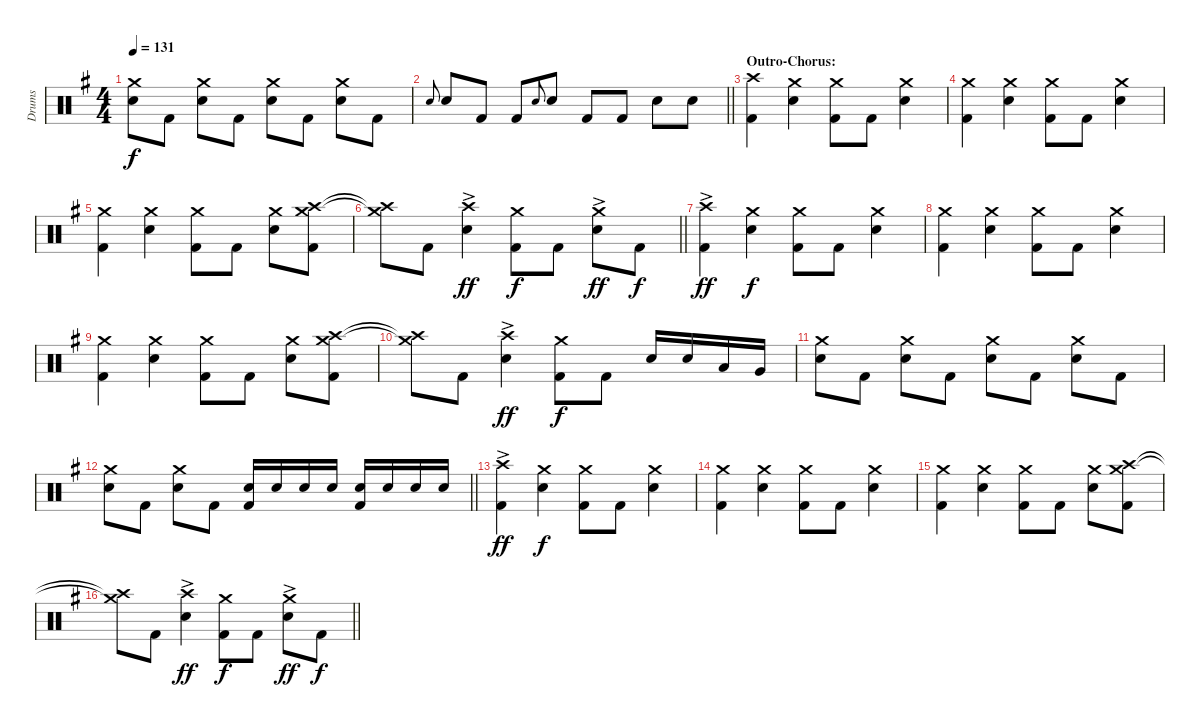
\track ("Drums" "Drums") {instrument percussion}
\staff {score}
\articulation defaults
\ts (4 4)
\tempo 131
\clef neutral
\ks g
("Crash medium (hit)" "Electric Snare (hit)").8{dy f} "Kick (hit) 2".8 ("Crash medium (hit)" "Electric Snare (hit)").8 "Kick (hit) 2".8 ("Crash medium (hit)" "Electric Snare (hit)").8 "Kick (hit) 2".8 ("Crash medium (hit)" "Electric Snare (hit)").8 "Kick (hit) 2".8 |
\barLineRight lightlight "Electric Snare (hit)".8{gr onbeat} "Electric Snare (hit)".8 "Kick (hit) 2".8 "Kick (hit) 2".8 "Electric Snare (hit)".8{gr onbeat} "Electric Snare (hit)".8 "Kick (hit) 2".8 "Kick (hit) 2".8 "Electric Snare (hit)".8 "Electric Snare (hit)".8
|
\section ("" "Outro-Chorus:")
("Crash high (hit)" "Kick (hit) 2").4 ("Crash medium (hit)" "Electric Snare (hit)").4 ("Crash medium (hit)" "Kick (hit) 2").8 "Kick (hit) 2".8 ("Crash medium (hit)" "Electric Snare (hit)").4 |
("Crash medium (hit)" "Kick (hit) 2").4 ("Crash medium (hit)" "Electric Snare (hit)").4 ("Crash medium (hit)" "Kick (hit) 2").8 "Kick (hit) 2".8 ("Crash medium (hit)" "Electric Snare (hit)").4 |
("Crash medium (hit)" "Kick (hit) 2").4 ("Crash medium (hit)" "Electric Snare (hit)").4 ("Crash medium (hit)" "Kick (hit) 2").8 "Kick (hit) 2".8 ("Crash medium (hit)" "Electric Snare (hit)").8 ("Crash high (hit)" "Crash medium (hit)" "Kick (hit) 2").8 |
\barLineRight lightlight
("Crash high (hit)"{t} "Crash medium (hit)"{t}).8 "Kick (hit) 2".8 ("Crash high (hit)"{ac} "Electric Snare (hit)").4{dy ff} ("Crash medium (hit)" "Kick (hit) 2").8{dy f} "Kick (hit) 2".8 ("Crash medium (hit)"{ac} "Electric Snare (hit)").8{dy ff} "Kick (hit) 2".8{dy f} |
("Crash high (hit)"{ac} "Kick (hit) 2").4{dy ff} ("Crash medium (hit)" "Electric Snare (hit)").4{dy f} ("Crash medium (hit)" "Kick (hit) 2").8 "Kick (hit) 2".8 ("Crash medium (hit)" "Electric Snare (hit)").4 |
("Crash medium (hit)" "Kick (hit) 2").4 ("Crash medium (hit)" "Electric Snare (hit)").4 ("Crash medium (hit)" "Kick (hit) 2").8 "Kick (hit) 2".8 ("Crash medium (hit)" "Electric Snare (hit)").4 |
("Crash medium (hit)" "Kick (hit) 2").4 ("Crash medium (hit)" "Electric Snare (hit)").4 ("Crash medium (hit)" "Kick (hit) 2").8 "Kick (hit) 2".8 ("Crash medium (hit)" "Electric Snare (hit)").8 ("Crash high (hit)" "Crash medium (hit)" "Kick (hit) 2").8 |
("Crash high (hit)"{t} "Crash medium (hit)"{t}).8 "Kick (hit) 2".8 ("Crash high (hit)"{ac} "Electric Snare (hit)").4{dy ff} ("Crash medium (hit)" "Kick (hit) 2").8{dy f} "Kick (hit) 2".8 "Electric Snare (hit)".16 "Electric Snare (hit)".16 "Low Tom (hit)".16 "Very Low Tom (hit)".16 |
("Crash medium (hit)" "Electric Snare (hit)").8 "Kick (hit) 2".8 ("Crash medium (hit)" "Electric Snare (hit)").8 "Kick (hit) 2".8 ("Crash medium (hit)" "Electric Snare (hit)").8 "Kick (hit) 2".8 ("Crash medium (hit)" "Electric Snare (hit)").8 "Kick (hit) 2".8 |
\barLineRight lightlight
("Crash medium (hit)" "Electric Snare (hit)").8 "Kick (hit) 2".8 ("Crash medium (hit)" "Electric Snare (hit)").8 "Kick (hit) 2".8 ("Electric Snare (hit)" "Kick (hit) 2").16 "Electric Snare (hit)".16 "Electric Snare (hit)".16 "Electric Snare (hit)".16 ("Electric Snare (hit)" "Kick (hit) 2").16 "Electric Snare (hit)".16 "Electric Snare (hit)".16 "Electric Snare (hit)".16 |
("Crash high (hit)"{ac} "Kick (hit) 2").4{dy ff} ("Crash medium (hit)" "Electric Snare (hit)").4{dy f} ("Crash medium (hit)" "Kick (hit) 2").8 "Kick (hit) 2".8 ("Crash medium (hit)" "Electric Snare (hit)").4 |
("Crash medium (hit)" "Kick (hit) 2").4 ("Crash medium (hit)" "Electric Snare (hit)").4 ("Crash medium (hit)" "Kick (hit) 2").8 "Kick (hit) 2".8 ("Crash medium (hit)" "Electric Snare (hit)").4 |
("Crash medium (hit)" "Kick (hit) 2").4 ("Crash medium (hit)" "Electric Snare (hit)").4 ("Crash medium (hit)" "Kick (hit) 2").8 "Kick (hit) 2".8 ("Crash medium (hit)" "Electric Snare (hit)").8 ("Crash high (hit)" "Crash medium (hit)" "Kick (hit) 2").8 |
\barLineRight lightlight
("Crash high (hit)"{t} "Crash medium (hit)"{t}).8 "Kick (hit) 2".8 ("Crash high (hit)"{ac} "Electric Snare (hit)").4{dy ff} ("Crash medium (hit)" "Kick (hit) 2").8{dy f} "Kick (hit) 2".8 ("Crash medium (hit)"{ac} "Electric Snare (hit)").8{dy ff} "Kick (hit) 2".8{dy f}
